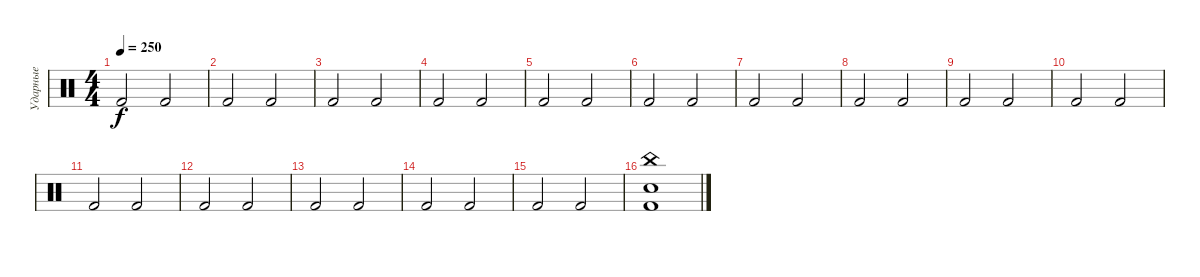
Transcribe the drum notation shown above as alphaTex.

\track ("Ударные" "Ударные") {instrument percussion}
\staff {score}
\articulation defaults
\ts (4 4)
\tempo 250
\clef neutral
\ks c "Kick (hit) 2".2{dy f} "Kick (hit) 2".2
|
"Kick (hit) 2".2 "Kick (hit) 2".2 |
"Kick (hit) 2".2 "Kick (hit) 2".2 |
"Kick (hit) 2".2 "Kick (hit) 2".2 |
"Kick (hit) 2".2 "Kick (hit) 2".2 |
"Kick (hit) 2".2 "Kick (hit) 2".2 |
"Kick (hit) 2".2 "Kick (hit) 2".2 |
"Kick (hit) 2".2 "Kick (hit) 2".2 |
"Kick (hit) 2".2 "Kick (hit) 2".2 |
"Kick (hit) 2".2 "Kick (hit) 2".2 |
"Kick (hit) 2".2 "Kick (hit) 2".2 |
"Kick (hit) 2".2 "Kick (hit) 2".2 |
"Kick (hit) 2".2 "Kick (hit) 2".2 |
"Kick (hit) 2".2 "Kick (hit) 2".2 |
"Kick (hit) 2".2 "Kick (hit) 2".2 |
("Snare (hit) 2" "China (hit)" "Kick (hit) 2").1
